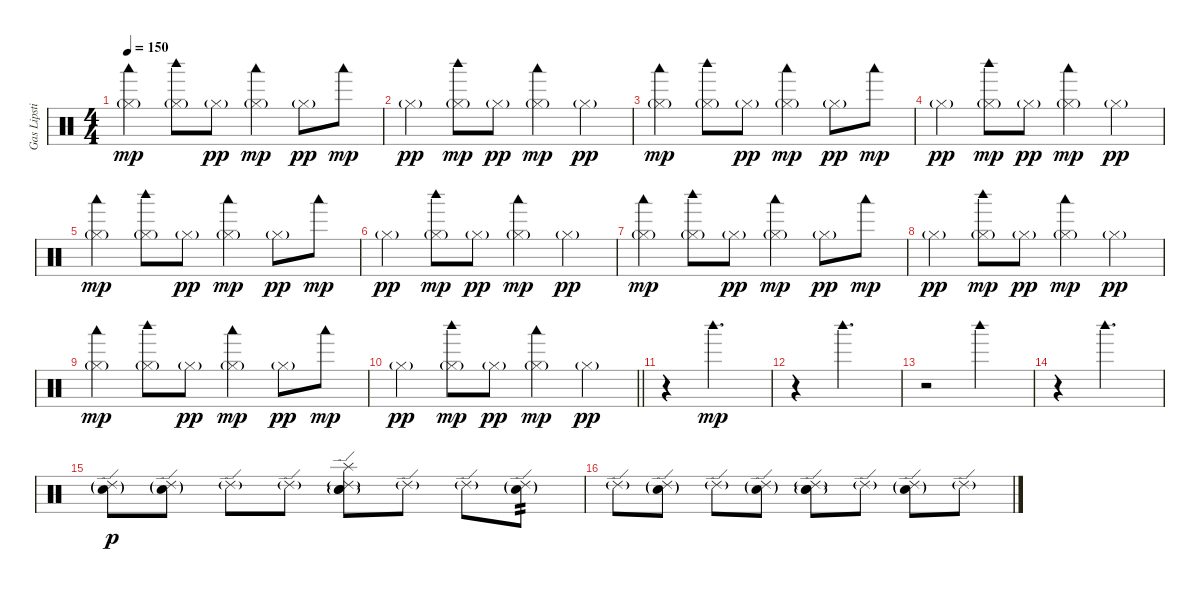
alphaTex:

\track ("Gas Lipstick" "Gas Lipsti") {instrument percussion}
\staff {score}
\articulation defaults
\ts (4 4)
\tempo 150
\clef neutral
\ks c
("Hi-Hat (closed)"{g} "Woodblock low (hit)").4{dy mp} ("Hi-Hat (closed)"{g} "Woodblock high (hit)").8 "Hi-Hat (closed)"{g}.8{dy pp} ("Hi-Hat (closed)"{g} "Woodblock low (hit)").4{dy mp} "Hi-Hat (closed)"{g}.8{dy pp} "Woodblock low (hit)".8{dy mp} |
"Hi-Hat (closed)"{g}.4{dy pp} ("Hi-Hat (closed)"{g} "Woodblock high (hit)").8{dy mp} "Hi-Hat (closed)"{g}.8{dy pp} ("Hi-Hat (closed)"{g} "Woodblock low (hit)").4{dy mp} "Hi-Hat (closed)"{g}.4{dy pp} |
("Hi-Hat (closed)"{g} "Woodblock low (hit)").4{dy mp} ("Hi-Hat (closed)"{g} "Woodblock high (hit)").8 "Hi-Hat (closed)"{g}.8{dy pp} ("Hi-Hat (closed)"{g} "Woodblock low (hit)").4{dy mp} "Hi-Hat (closed)"{g}.8{dy pp} "Woodblock low (hit)".8{dy mp} |
"Hi-Hat (closed)"{g}.4{dy pp} ("Hi-Hat (closed)"{g} "Woodblock high (hit)").8{dy mp} "Hi-Hat (closed)"{g}.8{dy pp} ("Hi-Hat (closed)"{g} "Woodblock low (hit)").4{dy mp} "Hi-Hat (closed)"{g}.4{dy pp} |
("Hi-Hat (closed)"{g} "Woodblock low (hit)").4{dy mp} ("Hi-Hat (closed)"{g} "Woodblock high (hit)").8 "Hi-Hat (closed)"{g}.8{dy pp} ("Hi-Hat (closed)"{g} "Woodblock low (hit)").4{dy mp} "Hi-Hat (closed)"{g}.8{dy pp} "Woodblock low (hit)".8{dy mp} |
"Hi-Hat (closed)"{g}.4{dy pp} ("Hi-Hat (closed)"{g} "Woodblock high (hit)").8{dy mp} "Hi-Hat (closed)"{g}.8{dy pp} ("Hi-Hat (closed)"{g} "Woodblock low (hit)").4{dy mp} "Hi-Hat (closed)"{g}.4{dy pp} |
("Hi-Hat (closed)"{g} "Woodblock low (hit)").4{dy mp} ("Hi-Hat (closed)"{g} "Woodblock high (hit)").8 "Hi-Hat (closed)"{g}.8{dy pp} ("Hi-Hat (closed)"{g} "Woodblock low (hit)").4{dy mp} "Hi-Hat (closed)"{g}.8{dy pp} "Woodblock low (hit)".8{dy mp} |
"Hi-Hat (closed)"{g}.4{dy pp} ("Hi-Hat (closed)"{g} "Woodblock high (hit)").8{dy mp} "Hi-Hat (closed)"{g}.8{dy pp} ("Hi-Hat (closed)"{g} "Woodblock low (hit)").4{dy mp} "Hi-Hat (closed)"{g}.4{dy pp} |
("Hi-Hat (closed)"{g} "Woodblock low (hit)").4{dy mp} ("Hi-Hat (closed)"{g} "Woodblock high (hit)").8 "Hi-Hat (closed)"{g}.8{dy pp} ("Hi-Hat (closed)"{g} "Woodblock low (hit)").4{dy mp} "Hi-Hat (closed)"{g}.8{dy pp} "Woodblock low (hit)".8{dy mp} |
\barLineRight lightlight "Hi-Hat (closed)"{g}.4{dy pp}
("Hi-Hat (closed)"{g} "Woodblock high (hit)").8{dy mp} "Hi-Hat (closed)"{g}.8{dy pp} ("Hi-Hat (closed)"{g} "Woodblock low (hit)").4{dy mp} "Hi-Hat (closed)"{g}.4{dy pp} |
r.4 "Woodblock high (hit)".2{d dy mp} |
r.4 "Woodblock high (hit)".2{d} |
r.2 "Woodblock high (hit)".2 |
r.4 "Woodblock high (hit)".2{d} |
("Ride (edge) 2"{g} "Snare (hit) 2"{g}).8{dy p} ("Ride (edge) 2"{g} "Snare (hit) 2"{g}).8 "Ride (edge) 2"{g}.8 "Ride (edge) 2"{g}.8 ("Splash (hit)" "Ride (edge) 2"{g} "Hand Clap (hit)" "Electric Snare (hit)"{g}).8 "Ride (edge) 2"{g}.8 "Ride (edge) 2"{g}.8 ("Ride (edge) 2"{g} "Snare (hit) 2"{g}).8{tp 2} |
"Ride (edge) 2"{g}.8 ("Ride (edge) 2"{g} "Snare (hit) 2"{g}).8 "Ride (edge) 2"{g}.8 ("Ride (edge) 2"{g} "Snare (hit) 2"{g}).8 ("Ride (edge) 2"{g} "Hand Clap (hit)" "Electric Snare (hit)"{g}).8 "Ride (edge) 2"{g}.8 ("Ride (edge) 2"{g} "Snare (hit) 2"{g}).8 "Ride (edge) 2"{g}.8
